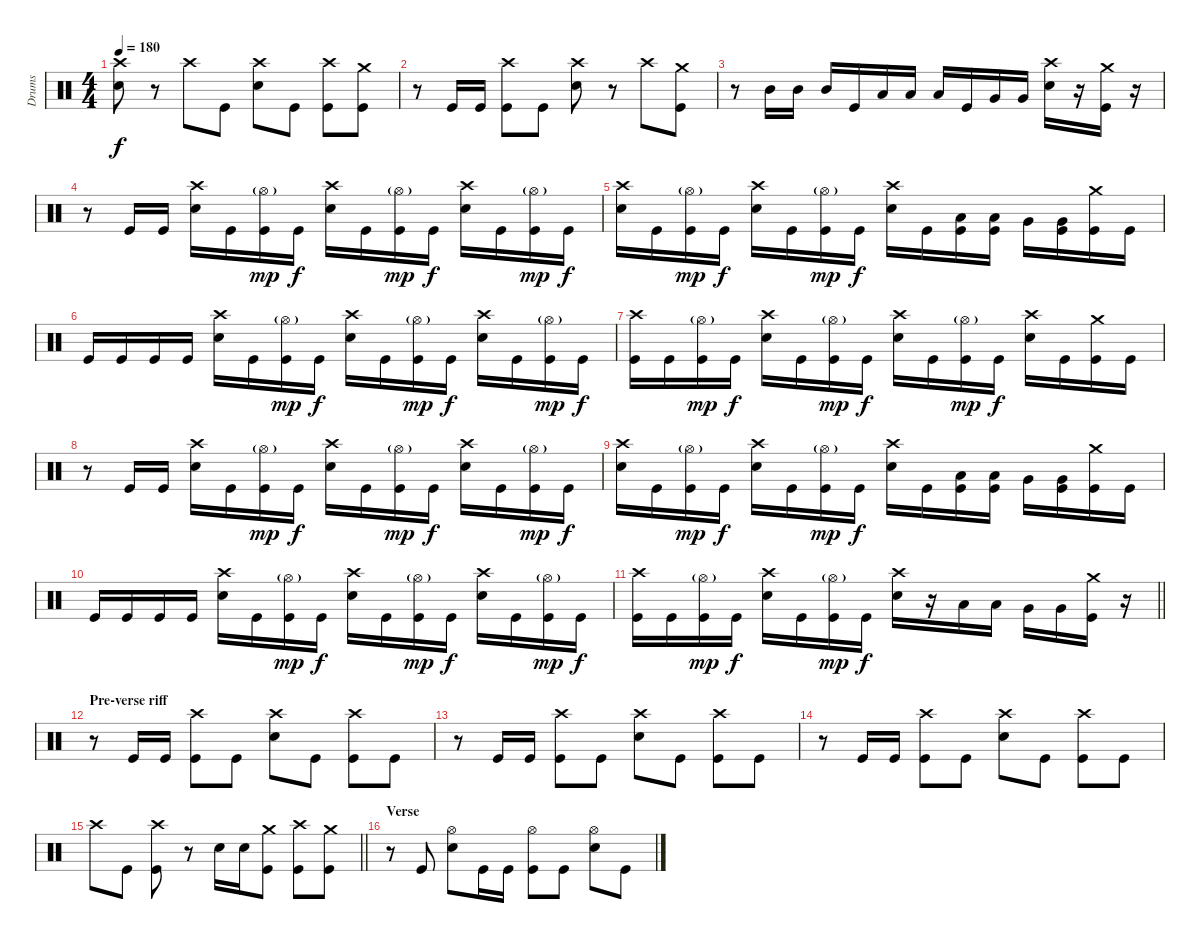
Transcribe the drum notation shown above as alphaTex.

\track ("Drums" "Drums") {instrument percussion}
\staff {score}
\articulation defaults
\ts (4 4)
\tempo 180
\clef neutral
\ks c
("Crash high (hit)" "Electric Snare (hit)").8{dy f} r.8 "Crash high (hit)".8 "Kick (hit)".8 ("Crash high (hit)" "Electric Snare (hit)").8 "Kick (hit)".8 ("Crash high (hit)" "Kick (hit)").8 ("Crash medium (hit)" "Kick (hit)").8 |
r.8 "Kick (hit)".16 "Kick (hit)".16 ("Crash high (hit)" "Kick (hit)").8 "Kick (hit)".8 ("Crash high (hit)" "Electric Snare (hit)").8 r.8 "Crash high (hit)".8 ("Crash medium (hit)" "Kick (hit)").8 |
r.8 "Mid Tom (hit)".16 "Mid Tom (hit)".16 "Mid Tom (hit)".16 "Kick (hit)".16 "Low Tom (hit)".16 "Low Tom (hit)".16 "Low Tom (hit)".16 "Kick (hit)".16 "Very Low Tom (hit)".16 "Very Low Tom (hit)".16 ("Crash high (hit)" "Electric Snare (hit)").16 r.16 ("Crash medium (hit)" "Kick (hit)").16 r.16 |
r.8 "Kick (hit)".16 "Kick (hit)".16 ("Crash high (hit)" "Electric Snare (hit)").16 "Kick (hit)".16 ("Hi-Hat (open)"{g} "Kick (hit)").16{dy mp} "Kick (hit)".16{dy f} ("Crash high (hit)" "Electric Snare (hit)").16 "Kick (hit)".16 ("Hi-Hat (open)"{g} "Kick (hit)").16{dy mp} "Kick (hit)".16{dy f} ("Crash high (hit)" "Electric Snare (hit)").16 "Kick (hit)".16 ("Hi-Hat (open)"{g} "Kick (hit)").16{dy mp} "Kick (hit)".16{dy f} |
("Crash high (hit)" "Electric Snare (hit)").16 "Kick (hit)".16 ("Hi-Hat (open)"{g} "Kick (hit)").16{dy mp} "Kick (hit)".16{dy f} ("Crash high (hit)" "Electric Snare (hit)").16 "Kick (hit)".16 ("Hi-Hat (open)"{g} "Kick (hit)").16{dy mp} "Kick (hit)".16{dy f} ("Crash high (hit)" "Electric Snare (hit)").16 "Kick (hit)".16 ("Low Tom (hit)" "Kick (hit)").16 ("Low Tom (hit)" "Kick (hit)").16 "Very Low Tom (hit)".16 ("Very Low Tom (hit)" "Kick (hit)").16 ("Crash medium (hit)" "Kick (hit)").16 "Kick (hit)".16 |
"Kick (hit)".16 "Kick (hit)".16 "Kick (hit)".16 "Kick (hit)".16 ("Crash high (hit)" "Electric Snare (hit)").16 "Kick (hit)".16 ("Hi-Hat (open)"{g} "Kick (hit)").16{dy mp} "Kick (hit)".16{dy f} ("Crash high (hit)" "Electric Snare (hit)").16 "Kick (hit)".16 ("Hi-Hat (open)"{g} "Kick (hit)").16{dy mp} "Kick (hit)".16{dy f} ("Crash high (hit)" "Electric Snare (hit)").16 "Kick (hit)".16 ("Hi-Hat (open)"{g} "Kick (hit)").16{dy mp} "Kick (hit)".16{dy f} |
("Crash high (hit)" "Kick (hit)").16 "Kick (hit)".16 ("Hi-Hat (open)"{g} "Kick (hit)").16{dy mp} "Kick (hit)".16{dy f} ("Crash high (hit)" "Electric Snare (hit)").16 "Kick (hit)".16 ("Hi-Hat (open)"{g} "Kick (hit)").16{dy mp} "Kick (hit)".16{dy f} ("Crash high (hit)" "Electric Snare (hit)").16 "Kick (hit)".16 ("Hi-Hat (open)"{g} "Kick (hit)").16{dy mp} "Kick (hit)".16{dy f} ("Crash high (hit)" "Electric Snare (hit)").16 "Kick (hit)".16 ("Crash medium (hit)" "Kick (hit)").16 "Kick (hit)".16 |
r.8 "Kick (hit)".16 "Kick (hit)".16 ("Crash high (hit)" "Electric Snare (hit)").16 "Kick (hit)".16 ("Hi-Hat (open)"{g} "Kick (hit)").16{dy mp} "Kick (hit)".16{dy f} ("Crash high (hit)" "Electric Snare (hit)").16 "Kick (hit)".16 ("Hi-Hat (open)"{g} "Kick (hit)").16{dy mp} "Kick (hit)".16{dy f} ("Crash high (hit)" "Electric Snare (hit)").16 "Kick (hit)".16 ("Hi-Hat (open)"{g} "Kick (hit)").16{dy mp} "Kick (hit)".16{dy f} |
("Crash high (hit)" "Electric Snare (hit)").16 "Kick (hit)".16 ("Hi-Hat (open)"{g} "Kick (hit)").16{dy mp} "Kick (hit)".16{dy f} ("Crash high (hit)" "Electric Snare (hit)").16 "Kick (hit)".16 ("Hi-Hat (open)"{g} "Kick (hit)").16{dy mp} "Kick (hit)".16{dy f} ("Crash high (hit)" "Electric Snare (hit)").16 "Kick (hit)".16 ("Low Tom (hit)" "Kick (hit)").16 ("Low Tom (hit)" "Kick (hit)").16 "Very Low Tom (hit)".16 ("Very Low Tom (hit)" "Kick (hit)").16 ("Crash medium (hit)" "Kick (hit)").16 "Kick (hit)".16 |
"Kick (hit)".16 "Kick (hit)".16 "Kick (hit)".16 "Kick (hit)".16 ("Crash high (hit)" "Electric Snare (hit)").16 "Kick (hit)".16 ("Hi-Hat (open)"{g} "Kick (hit)").16{dy mp} "Kick (hit)".16{dy f} ("Crash high (hit)" "Electric Snare (hit)").16 "Kick (hit)".16 ("Hi-Hat (open)"{g} "Kick (hit)").16{dy mp} "Kick (hit)".16{dy f} ("Crash high (hit)" "Electric Snare (hit)").16 "Kick (hit)".16 ("Hi-Hat (open)"{g} "Kick (hit)").16{dy mp} "Kick (hit)".16{dy f} |
\barLineRight lightlight
("Crash high (hit)" "Kick (hit)").16 "Kick (hit)".16 ("Hi-Hat (open)"{g} "Kick (hit)").16{dy mp} "Kick (hit)".16{dy f} ("Crash high (hit)" "Electric Snare (hit)").16 "Kick (hit)".16 ("Hi-Hat (open)"{g} "Kick (hit)").16{dy mp} "Kick (hit)".16{dy f} ("Crash high (hit)" "Electric Snare (hit)").16 r.16 "Low Tom (hit)".16 "Low Tom (hit)".16 "Very Low Tom (hit)".16 "Very Low Tom (hit)".16 ("Crash medium (hit)" "Kick (hit)").16 r.16 |
\section ("" "Pre-verse riff")
r.8 "Kick (hit)".16 "Kick (hit)".16 ("Crash high (hit)" "Kick (hit)").8 "Kick (hit)".8 ("Crash high (hit)" "Electric Snare (hit)").8 "Kick (hit)".8 ("Crash high (hit)" "Kick (hit)").8 "Kick (hit)".8 |
r.8 "Kick (hit)".16 "Kick (hit)".16 ("Crash high (hit)" "Kick (hit)").8 "Kick (hit)".8 ("Crash high (hit)" "Electric Snare (hit)").8 "Kick (hit)".8 ("Crash high (hit)" "Kick (hit)").8 "Kick (hit)".8 |
r.8 "Kick (hit)".16 "Kick (hit)".16 ("Crash high (hit)" "Kick (hit)").8 "Kick (hit)".8 ("Crash high (hit)" "Electric Snare (hit)").8 "Kick (hit)".8 ("Crash high (hit)" "Kick (hit)").8 "Kick (hit)".8 |
\barLineRight lightlight "Crash high (hit)".8 "Kick (hit)".8
("Crash high (hit)" "Kick (hit)").8 r.8 "Electric Snare (hit)".16 "Electric Snare (hit)".16 ("Crash medium (hit)" "Kick (hit)").8 ("Crash high (hit)" "Kick (hit)").8 ("Crash medium (hit)" "Kick (hit)").8 |
\section ("" "Verse")
r.8 "Kick (hit)".8 ("Hi-Hat (open)" "Electric Snare (hit)").8 "Kick (hit)".16 "Kick (hit)".16 ("Hi-Hat (open)" "Kick (hit)").8 "Kick (hit)".8 ("Hi-Hat (open)" "Electric Snare (hit)").8 "Kick (hit)".8
